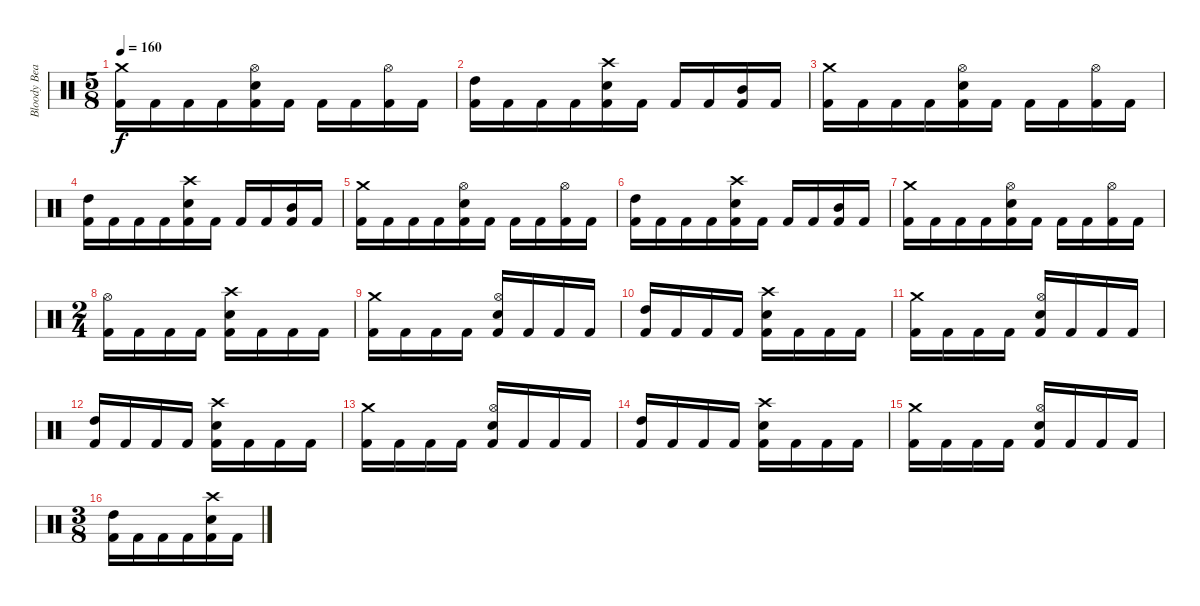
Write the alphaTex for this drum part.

\track ("Bloody Beater" "Bloody Bea") {instrument percussion}
\staff {score}
\articulation defaults
\ts (5 8)
\tempo 160
\clef neutral
\ks c
("Crash medium (hit)" "Kick (hit) 2").16{dy f} "Kick (hit) 2".16 "Kick (hit) 2".16 "Kick (hit) 2".16 ("Hi-Hat (open)" "Snare (hit) 2" "Kick (hit) 2").16 "Kick (hit) 2".16 "Kick (hit) 2".16 "Kick (hit) 2".16 ("Hi-Hat (open)" "Kick (hit) 2").16 "Kick (hit) 2".16 |
("High Tom (hit)" "Kick (hit) 2").16 "Kick (hit) 2".16 "Kick (hit) 2".16 "Kick (hit) 2".16 ("Crash high (hit)" "Snare (hit) 2" "Kick (hit) 2").16 "Kick (hit) 2".16 "Kick (hit) 2".16 "Kick (hit) 2".16 ("Mid Tom (hit)" "Kick (hit) 2").16 "Kick (hit) 2".16 |
("Crash medium (hit)" "Kick (hit) 2").16 "Kick (hit) 2".16 "Kick (hit) 2".16 "Kick (hit) 2".16 ("Hi-Hat (open)" "Snare (hit) 2" "Kick (hit) 2").16 "Kick (hit) 2".16 "Kick (hit) 2".16 "Kick (hit) 2".16 ("Hi-Hat (open)" "Kick (hit) 2").16 "Kick (hit) 2".16 |
("High Tom (hit)" "Kick (hit) 2").16 "Kick (hit) 2".16 "Kick (hit) 2".16 "Kick (hit) 2".16 ("Crash high (hit)" "Snare (hit) 2" "Kick (hit) 2").16 "Kick (hit) 2".16 "Kick (hit) 2".16 "Kick (hit) 2".16 ("Mid Tom (hit)" "Kick (hit) 2").16 "Kick (hit) 2".16 |
("Crash medium (hit)" "Kick (hit) 2").16 "Kick (hit) 2".16 "Kick (hit) 2".16 "Kick (hit) 2".16 ("Hi-Hat (open)" "Snare (hit) 2" "Kick (hit) 2").16 "Kick (hit) 2".16 "Kick (hit) 2".16 "Kick (hit) 2".16 ("Hi-Hat (open)" "Kick (hit) 2").16 "Kick (hit) 2".16 |
("High Tom (hit)" "Kick (hit) 2").16 "Kick (hit) 2".16 "Kick (hit) 2".16 "Kick (hit) 2".16 ("Crash high (hit)" "Snare (hit) 2" "Kick (hit) 2").16 "Kick (hit) 2".16 "Kick (hit) 2".16 "Kick (hit) 2".16 ("Mid Tom (hit)" "Kick (hit) 2").16 "Kick (hit) 2".16 |
("Crash medium (hit)" "Kick (hit) 2").16 "Kick (hit) 2".16 "Kick (hit) 2".16 "Kick (hit) 2".16 ("Hi-Hat (open)" "Snare (hit) 2" "Kick (hit) 2").16 "Kick (hit) 2".16 "Kick (hit) 2".16 "Kick (hit) 2".16 ("Hi-Hat (open)" "Kick (hit) 2").16 "Kick (hit) 2".16 |
\ts (2 4)
("Hi-Hat (open)" "Kick (hit) 2").16 "Kick (hit) 2".16 "Kick (hit) 2".16 "Kick (hit) 2".16 ("Crash high (hit)" "Snare (hit) 2" "Kick (hit) 2").16 "Kick (hit) 2".16 "Kick (hit) 2".16 "Kick (hit) 2".16 |
("Crash medium (hit)" "Kick (hit) 2").16 "Kick (hit) 2".16 "Kick (hit) 2".16 "Kick (hit) 2".16 ("Hi-Hat (open)" "Snare (hit) 2" "Kick (hit) 2").16 "Kick (hit) 2".16 "Kick (hit) 2".16 "Kick (hit) 2".16 |
("High Tom (hit)" "Kick (hit) 2").16 "Kick (hit) 2".16 "Kick (hit) 2".16 "Kick (hit) 2".16 ("Crash high (hit)" "Snare (hit) 2" "Kick (hit) 2").16 "Kick (hit) 2".16 "Kick (hit) 2".16 "Kick (hit) 2".16 |
("Crash medium (hit)" "Kick (hit) 2").16 "Kick (hit) 2".16 "Kick (hit) 2".16 "Kick (hit) 2".16 ("Hi-Hat (open)" "Snare (hit) 2" "Kick (hit) 2").16 "Kick (hit) 2".16 "Kick (hit) 2".16 "Kick (hit) 2".16 |
("High Tom (hit)" "Kick (hit) 2").16 "Kick (hit) 2".16 "Kick (hit) 2".16 "Kick (hit) 2".16 ("Crash high (hit)" "Snare (hit) 2" "Kick (hit) 2").16 "Kick (hit) 2".16 "Kick (hit) 2".16 "Kick (hit) 2".16 |
("Crash medium (hit)" "Kick (hit) 2").16 "Kick (hit) 2".16 "Kick (hit) 2".16 "Kick (hit) 2".16 ("Hi-Hat (open)" "Snare (hit) 2" "Kick (hit) 2").16 "Kick (hit) 2".16 "Kick (hit) 2".16 "Kick (hit) 2".16 |
("High Tom (hit)" "Kick (hit) 2").16 "Kick (hit) 2".16 "Kick (hit) 2".16 "Kick (hit) 2".16 ("Crash high (hit)" "Snare (hit) 2" "Kick (hit) 2").16 "Kick (hit) 2".16 "Kick (hit) 2".16 "Kick (hit) 2".16 |
("Crash medium (hit)" "Kick (hit) 2").16 "Kick (hit) 2".16 "Kick (hit) 2".16 "Kick (hit) 2".16 ("Hi-Hat (open)" "Snare (hit) 2" "Kick (hit) 2").16 "Kick (hit) 2".16 "Kick (hit) 2".16 "Kick (hit) 2".16 |
\ts (3 8)
("High Tom (hit)" "Kick (hit) 2").16 "Kick (hit) 2".16 "Kick (hit) 2".16 "Kick (hit) 2".16 ("Crash high (hit)" "Snare (hit) 2" "Kick (hit) 2").16 "Kick (hit) 2".16
